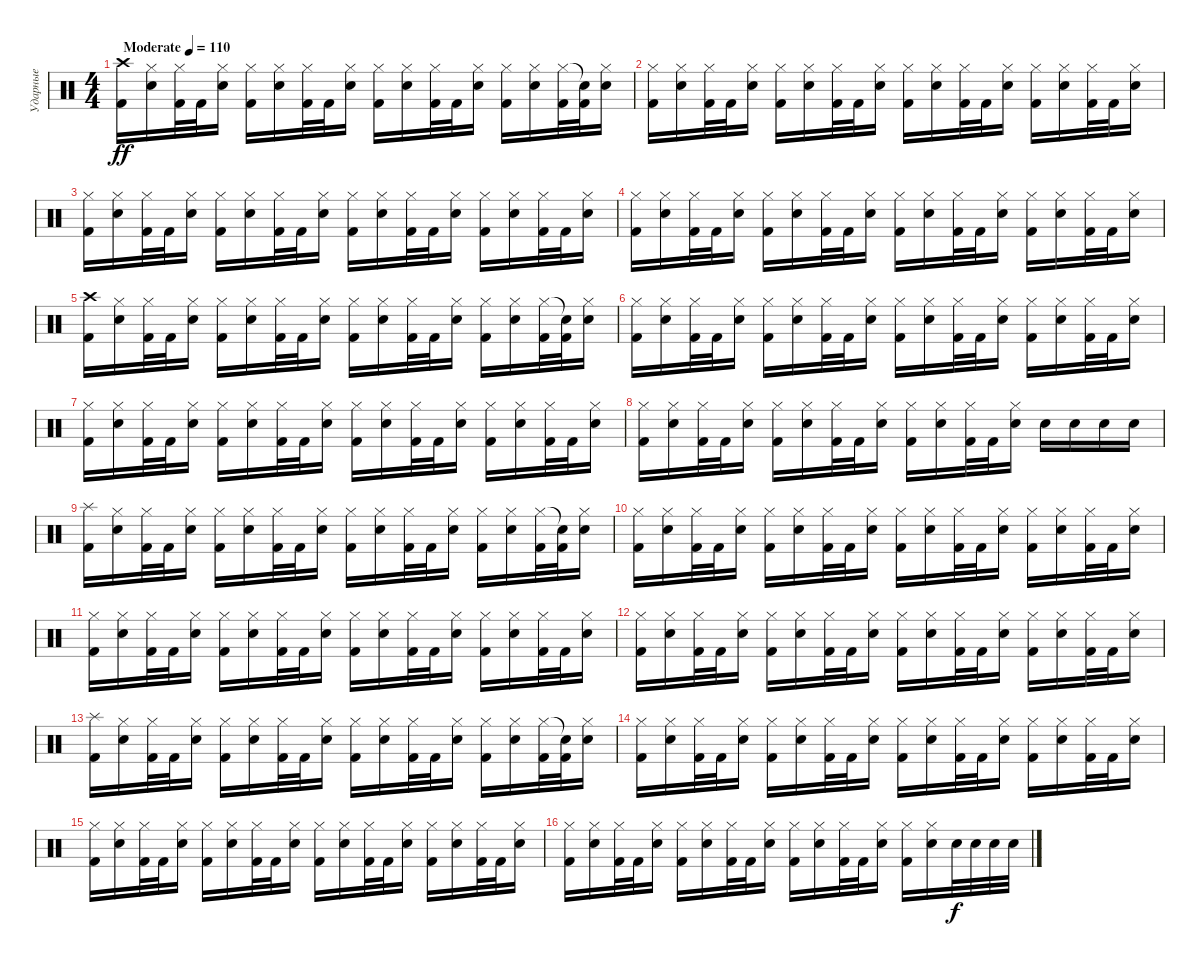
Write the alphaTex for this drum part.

\track ("Ударные" "Ударные") {instrument percussion}
\staff {score}
\articulation defaults
\ts (4 4)
\tempo (110 "Moderate")
\clef neutral
\ks c
("Crash high (hit)" "Kick (hit) 2").16{dy ff} ("Hi-Hat (closed)" "Electric Snare (hit)").16 ("Hi-Hat (closed)" "Kick (hit) 2").32 "Kick (hit) 2".32 ("Hi-Hat (closed)" "Electric Snare (hit)").16 ("Hi-Hat (closed)" "Kick (hit) 2").16 ("Hi-Hat (closed)" "Electric Snare (hit)").16 ("Hi-Hat (closed)" "Kick (hit) 2").32 "Kick (hit) 2".32 ("Hi-Hat (closed)" "Electric Snare (hit)").16 ("Hi-Hat (closed)" "Kick (hit) 2").16 ("Hi-Hat (closed)" "Electric Snare (hit)").16 ("Hi-Hat (closed)" "Kick (hit) 2").32 "Kick (hit) 2".32 ("Hi-Hat (closed)" "Electric Snare (hit)").16 ("Hi-Hat (closed)" "Kick (hit) 2").16 ("Hi-Hat (closed)" "Electric Snare (hit)").16 ("Hi-Hat (closed)" "Kick (hit) 2").32 ("Snare (hit)"{t} "Kick (hit) 2").32 ("Hi-Hat (closed)" "Electric Snare (hit)").16 |
("Hi-Hat (closed)" "Kick (hit) 2").16 ("Hi-Hat (closed)" "Electric Snare (hit)").16 ("Hi-Hat (closed)" "Kick (hit) 2").32 "Kick (hit) 2".32 ("Hi-Hat (closed)" "Electric Snare (hit)").16 ("Hi-Hat (closed)" "Kick (hit) 2").16 ("Hi-Hat (closed)" "Electric Snare (hit)").16 ("Hi-Hat (closed)" "Kick (hit) 2").32 "Kick (hit) 2".32 ("Hi-Hat (closed)" "Electric Snare (hit)").16 ("Hi-Hat (closed)" "Kick (hit) 2").16 ("Hi-Hat (closed)" "Electric Snare (hit)").16 ("Hi-Hat (closed)" "Kick (hit) 2").32 "Kick (hit) 2".32 ("Hi-Hat (closed)" "Electric Snare (hit)").16 ("Hi-Hat (closed)" "Kick (hit) 2").16 ("Hi-Hat (closed)" "Electric Snare (hit)").16 ("Hi-Hat (closed)" "Kick (hit) 2").32 "Kick (hit) 2".32 ("Hi-Hat (closed)" "Electric Snare (hit)").16 |
("Hi-Hat (closed)" "Kick (hit) 2").16 ("Hi-Hat (closed)" "Electric Snare (hit)").16 ("Hi-Hat (closed)" "Kick (hit) 2").32 "Kick (hit) 2".32 ("Hi-Hat (closed)" "Electric Snare (hit)").16 ("Hi-Hat (closed)" "Kick (hit) 2").16 ("Hi-Hat (closed)" "Electric Snare (hit)").16 ("Hi-Hat (closed)" "Kick (hit) 2").32 "Kick (hit) 2".32 ("Hi-Hat (closed)" "Electric Snare (hit)").16 ("Hi-Hat (closed)" "Kick (hit) 2").16 ("Hi-Hat (closed)" "Electric Snare (hit)").16 ("Hi-Hat (closed)" "Kick (hit) 2").32 "Kick (hit) 2".32 ("Hi-Hat (closed)" "Electric Snare (hit)").16 ("Hi-Hat (closed)" "Kick (hit) 2").16 ("Hi-Hat (closed)" "Electric Snare (hit)").16 ("Hi-Hat (closed)" "Kick (hit) 2").32 "Kick (hit) 2".32 ("Hi-Hat (closed)" "Electric Snare (hit)").16 |
("Hi-Hat (closed)" "Kick (hit) 2").16 ("Hi-Hat (closed)" "Electric Snare (hit)").16 ("Hi-Hat (closed)" "Kick (hit) 2").32 "Kick (hit) 2".32 ("Hi-Hat (closed)" "Electric Snare (hit)").16 ("Hi-Hat (closed)" "Kick (hit) 2").16 ("Hi-Hat (closed)" "Electric Snare (hit)").16 ("Hi-Hat (closed)" "Kick (hit) 2").32 "Kick (hit) 2".32 ("Hi-Hat (closed)" "Electric Snare (hit)").16 ("Hi-Hat (closed)" "Kick (hit) 2").16 ("Hi-Hat (closed)" "Electric Snare (hit)").16 ("Hi-Hat (closed)" "Kick (hit) 2").32 "Kick (hit) 2".32 ("Hi-Hat (closed)" "Electric Snare (hit)").16 ("Hi-Hat (closed)" "Kick (hit) 2").16 ("Hi-Hat (closed)" "Electric Snare (hit)").16 ("Hi-Hat (closed)" "Kick (hit) 2").32 "Kick (hit) 2".32 ("Hi-Hat (closed)" "Electric Snare (hit)").16 |
("Crash high (hit)" "Kick (hit) 2").16 ("Hi-Hat (closed)" "Electric Snare (hit)").16 ("Hi-Hat (closed)" "Kick (hit) 2").32 "Kick (hit) 2".32 ("Hi-Hat (closed)" "Electric Snare (hit)").16 ("Hi-Hat (closed)" "Kick (hit) 2").16 ("Hi-Hat (closed)" "Electric Snare (hit)").16 ("Hi-Hat (closed)" "Kick (hit) 2").32 "Kick (hit) 2".32 ("Hi-Hat (closed)" "Electric Snare (hit)").16 ("Hi-Hat (closed)" "Kick (hit) 2").16 ("Hi-Hat (closed)" "Electric Snare (hit)").16 ("Hi-Hat (closed)" "Kick (hit) 2").32 "Kick (hit) 2".32 ("Hi-Hat (closed)" "Electric Snare (hit)").16 ("Hi-Hat (closed)" "Kick (hit) 2").16 ("Hi-Hat (closed)" "Electric Snare (hit)").16 ("Hi-Hat (closed)" "Kick (hit) 2").32 ("Snare (hit)"{t} "Kick (hit) 2").32 ("Hi-Hat (closed)" "Electric Snare (hit)").16 |
("Hi-Hat (closed)" "Kick (hit) 2").16 ("Hi-Hat (closed)" "Electric Snare (hit)").16 ("Hi-Hat (closed)" "Kick (hit) 2").32 "Kick (hit) 2".32 ("Hi-Hat (closed)" "Electric Snare (hit)").16 ("Hi-Hat (closed)" "Kick (hit) 2").16 ("Hi-Hat (closed)" "Electric Snare (hit)").16 ("Hi-Hat (closed)" "Kick (hit) 2").32 "Kick (hit) 2".32 ("Hi-Hat (closed)" "Electric Snare (hit)").16 ("Hi-Hat (closed)" "Kick (hit) 2").16 ("Hi-Hat (closed)" "Electric Snare (hit)").16 ("Hi-Hat (closed)" "Kick (hit) 2").32 "Kick (hit) 2".32 ("Hi-Hat (closed)" "Electric Snare (hit)").16 ("Hi-Hat (closed)" "Kick (hit) 2").16 ("Hi-Hat (closed)" "Electric Snare (hit)").16 ("Hi-Hat (closed)" "Kick (hit) 2").32 "Kick (hit) 2".32 ("Hi-Hat (closed)" "Electric Snare (hit)").16 |
("Hi-Hat (closed)" "Kick (hit) 2").16 ("Hi-Hat (closed)" "Electric Snare (hit)").16 ("Hi-Hat (closed)" "Kick (hit) 2").32 "Kick (hit) 2".32 ("Hi-Hat (closed)" "Electric Snare (hit)").16 ("Hi-Hat (closed)" "Kick (hit) 2").16 ("Hi-Hat (closed)" "Electric Snare (hit)").16 ("Hi-Hat (closed)" "Kick (hit) 2").32 "Kick (hit) 2".32 ("Hi-Hat (closed)" "Electric Snare (hit)").16 ("Hi-Hat (closed)" "Kick (hit) 2").16 ("Hi-Hat (closed)" "Electric Snare (hit)").16 ("Hi-Hat (closed)" "Kick (hit) 2").32 "Kick (hit) 2".32 ("Hi-Hat (closed)" "Electric Snare (hit)").16 ("Hi-Hat (closed)" "Kick (hit) 2").16 ("Hi-Hat (closed)" "Electric Snare (hit)").16 ("Hi-Hat (closed)" "Kick (hit) 2").32 "Kick (hit) 2".32 ("Hi-Hat (closed)" "Electric Snare (hit)").16 |
("Hi-Hat (closed)" "Kick (hit) 2").16 ("Hi-Hat (closed)" "Electric Snare (hit)").16 ("Hi-Hat (closed)" "Kick (hit) 2").32 "Kick (hit) 2".32 ("Hi-Hat (closed)" "Electric Snare (hit)").16 ("Hi-Hat (closed)" "Kick (hit) 2").16 ("Hi-Hat (closed)" "Electric Snare (hit)").16 ("Hi-Hat (closed)" "Kick (hit) 2").32 "Kick (hit) 2".32 ("Hi-Hat (closed)" "Electric Snare (hit)").16 ("Hi-Hat (closed)" "Kick (hit) 2").16 ("Hi-Hat (closed)" "Electric Snare (hit)").16 ("Hi-Hat (closed)" "Kick (hit) 2").32 "Kick (hit) 2".32 ("Hi-Hat (closed)" "Electric Snare (hit)").16 "Electric Snare (hit)".16 "Electric Snare (hit)".16 "Electric Snare (hit)".16 "Electric Snare (hit)".16 |
("Splash (hit)" "Kick (hit) 2").16 ("Hi-Hat (closed)" "Electric Snare (hit)").16 ("Hi-Hat (closed)" "Kick (hit) 2").32 "Kick (hit) 2".32 ("Hi-Hat (closed)" "Electric Snare (hit)").16 ("Hi-Hat (closed)" "Kick (hit) 2").16 ("Hi-Hat (closed)" "Electric Snare (hit)").16 ("Hi-Hat (closed)" "Kick (hit) 2").32 "Kick (hit) 2".32 ("Hi-Hat (closed)" "Electric Snare (hit)").16 ("Hi-Hat (closed)" "Kick (hit) 2").16 ("Hi-Hat (closed)" "Electric Snare (hit)").16 ("Hi-Hat (closed)" "Kick (hit) 2").32 "Kick (hit) 2".32 ("Hi-Hat (closed)" "Electric Snare (hit)").16 ("Hi-Hat (closed)" "Kick (hit) 2").16 ("Hi-Hat (closed)" "Electric Snare (hit)").16 ("Hi-Hat (closed)" "Kick (hit) 2").32 ("Snare (hit)"{t} "Kick (hit) 2").32 ("Hi-Hat (closed)" "Electric Snare (hit)").16 |
("Hi-Hat (closed)" "Kick (hit) 2").16 ("Hi-Hat (closed)" "Electric Snare (hit)").16 ("Hi-Hat (closed)" "Kick (hit) 2").32 "Kick (hit) 2".32 ("Hi-Hat (closed)" "Electric Snare (hit)").16 ("Hi-Hat (closed)" "Kick (hit) 2").16 ("Hi-Hat (closed)" "Electric Snare (hit)").16 ("Hi-Hat (closed)" "Kick (hit) 2").32 "Kick (hit) 2".32 ("Hi-Hat (closed)" "Electric Snare (hit)").16 ("Hi-Hat (closed)" "Kick (hit) 2").16 ("Hi-Hat (closed)" "Electric Snare (hit)").16 ("Hi-Hat (closed)" "Kick (hit) 2").32 "Kick (hit) 2".32 ("Hi-Hat (closed)" "Electric Snare (hit)").16 ("Hi-Hat (closed)" "Kick (hit) 2").16 ("Hi-Hat (closed)" "Electric Snare (hit)").16 ("Hi-Hat (closed)" "Kick (hit) 2").32 "Kick (hit) 2".32 ("Hi-Hat (closed)" "Electric Snare (hit)").16 |
("Hi-Hat (closed)" "Kick (hit) 2").16 ("Hi-Hat (closed)" "Electric Snare (hit)").16 ("Hi-Hat (closed)" "Kick (hit) 2").32 "Kick (hit) 2".32 ("Hi-Hat (closed)" "Electric Snare (hit)").16 ("Hi-Hat (closed)" "Kick (hit) 2").16 ("Hi-Hat (closed)" "Electric Snare (hit)").16 ("Hi-Hat (closed)" "Kick (hit) 2").32 "Kick (hit) 2".32 ("Hi-Hat (closed)" "Electric Snare (hit)").16 ("Hi-Hat (closed)" "Kick (hit) 2").16 ("Hi-Hat (closed)" "Electric Snare (hit)").16 ("Hi-Hat (closed)" "Kick (hit) 2").32 "Kick (hit) 2".32 ("Hi-Hat (closed)" "Electric Snare (hit)").16 ("Hi-Hat (closed)" "Kick (hit) 2").16 ("Hi-Hat (closed)" "Electric Snare (hit)").16 ("Hi-Hat (closed)" "Kick (hit) 2").32 "Kick (hit) 2".32 ("Hi-Hat (closed)" "Electric Snare (hit)").16 |
("Hi-Hat (closed)" "Kick (hit) 2").16 ("Hi-Hat (closed)" "Electric Snare (hit)").16 ("Hi-Hat (closed)" "Kick (hit) 2").32 "Kick (hit) 2".32 ("Hi-Hat (closed)" "Electric Snare (hit)").16 ("Hi-Hat (closed)" "Kick (hit) 2").16 ("Hi-Hat (closed)" "Electric Snare (hit)").16 ("Hi-Hat (closed)" "Kick (hit) 2").32 "Kick (hit) 2".32 ("Hi-Hat (closed)" "Electric Snare (hit)").16 ("Hi-Hat (closed)" "Kick (hit) 2").16 ("Hi-Hat (closed)" "Electric Snare (hit)").16 ("Hi-Hat (closed)" "Kick (hit) 2").32 "Kick (hit) 2".32 ("Hi-Hat (closed)" "Electric Snare (hit)").16 ("Hi-Hat (closed)" "Kick (hit) 2").16 ("Hi-Hat (closed)" "Electric Snare (hit)").16 ("Hi-Hat (closed)" "Kick (hit) 2").32 "Kick (hit) 2".32 ("Hi-Hat (closed)" "Electric Snare (hit)").16 |
("Splash (hit)" "Kick (hit) 2").16 ("Hi-Hat (closed)" "Electric Snare (hit)").16 ("Hi-Hat (closed)" "Kick (hit) 2").32 "Kick (hit) 2".32 ("Hi-Hat (closed)" "Electric Snare (hit)").16 ("Hi-Hat (closed)" "Kick (hit) 2").16 ("Hi-Hat (closed)" "Electric Snare (hit)").16 ("Hi-Hat (closed)" "Kick (hit) 2").32 "Kick (hit) 2".32 ("Hi-Hat (closed)" "Electric Snare (hit)").16 ("Hi-Hat (closed)" "Kick (hit) 2").16 ("Hi-Hat (closed)" "Electric Snare (hit)").16 ("Hi-Hat (closed)" "Kick (hit) 2").32 "Kick (hit) 2".32 ("Hi-Hat (closed)" "Electric Snare (hit)").16 ("Hi-Hat (closed)" "Kick (hit) 2").16 ("Hi-Hat (closed)" "Electric Snare (hit)").16 ("Hi-Hat (closed)" "Kick (hit) 2").32 ("Snare (hit)"{t} "Kick (hit) 2").32 ("Hi-Hat (closed)" "Electric Snare (hit)").16 |
("Hi-Hat (closed)" "Kick (hit) 2").16 ("Hi-Hat (closed)" "Electric Snare (hit)").16 ("Hi-Hat (closed)" "Kick (hit) 2").32 "Kick (hit) 2".32 ("Hi-Hat (closed)" "Electric Snare (hit)").16 ("Hi-Hat (closed)" "Kick (hit) 2").16 ("Hi-Hat (closed)" "Electric Snare (hit)").16 ("Hi-Hat (closed)" "Kick (hit) 2").32 "Kick (hit) 2".32 ("Hi-Hat (closed)" "Electric Snare (hit)").16 ("Hi-Hat (closed)" "Kick (hit) 2").16 ("Hi-Hat (closed)" "Electric Snare (hit)").16 ("Hi-Hat (closed)" "Kick (hit) 2").32 "Kick (hit) 2".32 ("Hi-Hat (closed)" "Electric Snare (hit)").16 ("Hi-Hat (closed)" "Kick (hit) 2").16 ("Hi-Hat (closed)" "Electric Snare (hit)").16 ("Hi-Hat (closed)" "Kick (hit) 2").32 "Kick (hit) 2".32 ("Hi-Hat (closed)" "Electric Snare (hit)").16 |
("Hi-Hat (closed)" "Kick (hit) 2").16 ("Hi-Hat (closed)" "Electric Snare (hit)").16 ("Hi-Hat (closed)" "Kick (hit) 2").32 "Kick (hit) 2".32 ("Hi-Hat (closed)" "Electric Snare (hit)").16 ("Hi-Hat (closed)" "Kick (hit) 2").16 ("Hi-Hat (closed)" "Electric Snare (hit)").16 ("Hi-Hat (closed)" "Kick (hit) 2").32 "Kick (hit) 2".32 ("Hi-Hat (closed)" "Electric Snare (hit)").16 ("Hi-Hat (closed)" "Kick (hit) 2").16 ("Hi-Hat (closed)" "Electric Snare (hit)").16 ("Hi-Hat (closed)" "Kick (hit) 2").32 "Kick (hit) 2".32 ("Hi-Hat (closed)" "Electric Snare (hit)").16 ("Hi-Hat (closed)" "Kick (hit) 2").16 ("Hi-Hat (closed)" "Electric Snare (hit)").16 ("Hi-Hat (closed)" "Kick (hit) 2").32 "Kick (hit) 2".32 ("Hi-Hat (closed)" "Electric Snare (hit)").16 |
("Hi-Hat (closed)" "Kick (hit) 2").16 ("Hi-Hat (closed)" "Electric Snare (hit)").16 ("Hi-Hat (closed)" "Kick (hit) 2").32 "Kick (hit) 2".32 ("Hi-Hat (closed)" "Electric Snare (hit)").16 ("Hi-Hat (closed)" "Kick (hit) 2").16 ("Hi-Hat (closed)" "Electric Snare (hit)").16 ("Hi-Hat (closed)" "Kick (hit) 2").32 "Kick (hit) 2".32 ("Hi-Hat (closed)" "Electric Snare (hit)").16 ("Hi-Hat (closed)" "Kick (hit) 2").16 ("Hi-Hat (closed)" "Electric Snare (hit)").16 ("Hi-Hat (closed)" "Kick (hit) 2").32 "Kick (hit) 2".32 ("Hi-Hat (closed)" "Electric Snare (hit)").16 ("Hi-Hat (closed)" "Kick (hit) 2").16 ("Hi-Hat (closed)" "Electric Snare (hit)").16 "Electric Snare (hit)".32{dy f} "Electric Snare (hit)".32 "Electric Snare (hit)".32 "Electric Snare (hit)".32
